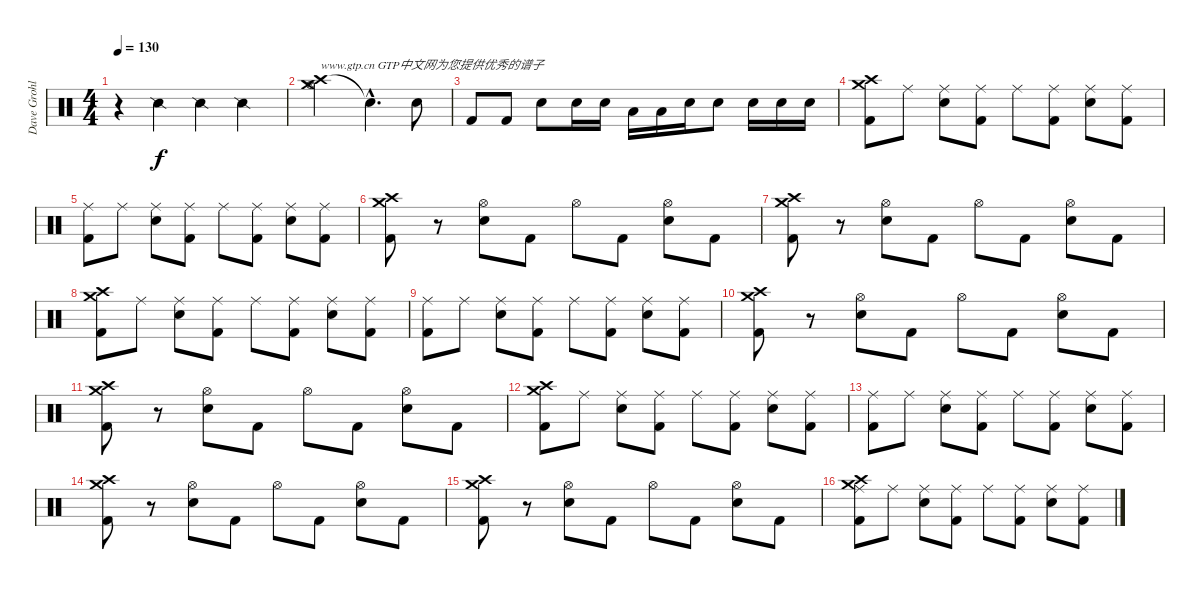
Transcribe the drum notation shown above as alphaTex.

\track ("Dave Grohl" "Dave Grohl") {instrument percussion}
\staff {score}
\articulation defaults
\ts (4 4)
\tempo 130
\clef neutral
\ks c
r.4{dy f} "Snare (side stick) 2".4 "Snare (side stick) 2".4 "Snare (side stick) 2".4 |
("Crash high (hit)" "Crash medium (hit)" "Hi-Hat (open)").2{txt "www.gtp.cn GTP中文网为您提供优秀的谱子"} "Snare (hit)"{hac t}.4{d} "Snare (hit) 2".8 |
"Kick (hit) 2".8 "Kick (hit) 2".8 "Snare (hit) 2".8 "Snare (hit) 2".16 "Snare (hit) 2".16 "Low Tom (hit)".16 "Low Tom (hit)".16 "Snare (hit) 2".16 "Snare (hit) 2".8 "Snare (hit) 2".16 "Snare (hit) 2".16 "Snare (hit) 2".16 |
("Crash high (hit)" "Crash medium (hit)" "Kick (hit) 2").8 "Ride (middle)".8 ("Ride (middle)" "Snare (hit) 2").8 ("Ride (middle)" "Kick (hit) 2").8 "Ride (middle)".8 ("Ride (middle)" "Kick (hit) 2").8 ("Ride (middle)" "Snare (hit) 2").8 ("Ride (middle)" "Kick (hit) 2").8 |
("Ride (middle)" "Kick (hit) 2").8 "Ride (middle)".8 ("Ride (middle)" "Snare (hit) 2").8 ("Ride (middle)" "Kick (hit) 2").8 "Ride (middle)".8 ("Ride (middle)" "Kick (hit) 2").8 ("Ride (middle)" "Snare (hit) 2").8 ("Ride (middle)" "Kick (hit) 2").8 |
("Crash high (hit)" "Crash medium (hit)" "Kick (hit) 2").8 r.8 ("Hi-Hat (open)" "Snare (hit) 2").8 "Kick (hit) 2".8 "Hi-Hat (open)".8 "Kick (hit) 2".8 ("Hi-Hat (open)" "Snare (hit) 2").8 "Kick (hit) 2".8 |
("Crash high (hit)" "Crash medium (hit)" "Kick (hit) 2").8 r.8 ("Hi-Hat (open)" "Snare (hit) 2").8 "Kick (hit) 2".8 "Hi-Hat (open)".8 "Kick (hit) 2".8 ("Hi-Hat (open)" "Snare (hit) 2").8 "Kick (hit) 2".8 |
("Crash high (hit)" "Crash medium (hit)" "Kick (hit) 2").8 "Ride (middle)".8 ("Ride (middle)" "Snare (hit) 2").8 ("Ride (middle)" "Kick (hit) 2").8 "Ride (middle)".8 ("Ride (middle)" "Kick (hit) 2").8 ("Ride (middle)" "Snare (hit) 2").8 ("Ride (middle)" "Kick (hit) 2").8 |
("Ride (middle)" "Kick (hit) 2").8 "Ride (middle)".8 ("Ride (middle)" "Snare (hit) 2").8 ("Ride (middle)" "Kick (hit) 2").8 "Ride (middle)".8 ("Ride (middle)" "Kick (hit) 2").8 ("Ride (middle)" "Snare (hit) 2").8 ("Ride (middle)" "Kick (hit) 2").8 |
("Crash high (hit)" "Crash medium (hit)" "Kick (hit) 2").8 r.8 ("Hi-Hat (open)" "Snare (hit) 2").8 "Kick (hit) 2".8 "Hi-Hat (open)".8 "Kick (hit) 2".8 ("Hi-Hat (open)" "Snare (hit) 2").8 "Kick (hit) 2".8 |
("Crash high (hit)" "Crash medium (hit)" "Kick (hit) 2").8 r.8 ("Hi-Hat (open)" "Snare (hit) 2").8 "Kick (hit) 2".8 "Hi-Hat (open)".8 "Kick (hit) 2".8 ("Hi-Hat (open)" "Snare (hit) 2").8 "Kick (hit) 2".8 |
("Crash high (hit)" "Crash medium (hit)" "Kick (hit) 2").8 "Ride (middle)".8 ("Ride (middle)" "Snare (hit) 2").8 ("Ride (middle)" "Kick (hit) 2").8 "Ride (middle)".8 ("Ride (middle)" "Kick (hit) 2").8 ("Ride (middle)" "Snare (hit) 2").8 ("Ride (middle)" "Kick (hit) 2").8 |
("Ride (middle)" "Kick (hit) 2").8 "Ride (middle)".8 ("Ride (middle)" "Snare (hit) 2").8 ("Ride (middle)" "Kick (hit) 2").8 "Ride (middle)".8 ("Ride (middle)" "Kick (hit) 2").8 ("Ride (middle)" "Snare (hit) 2").8 ("Ride (middle)" "Kick (hit) 2").8 |
("Crash high (hit)" "Crash medium (hit)" "Kick (hit) 2").8 r.8 ("Hi-Hat (open)" "Snare (hit) 2").8 "Kick (hit) 2".8 "Hi-Hat (open)".8 "Kick (hit) 2".8 ("Hi-Hat (open)" "Snare (hit) 2").8 "Kick (hit) 2".8 |
("Crash high (hit)" "Crash medium (hit)" "Kick (hit) 2").8 r.8 ("Hi-Hat (open)" "Snare (hit) 2").8 "Kick (hit) 2".8 "Hi-Hat (open)".8 "Kick (hit) 2".8 ("Hi-Hat (open)" "Snare (hit) 2").8 "Kick (hit) 2".8 |
("Crash medium (hit)" "Crash high (hit)" "Ride (middle)" "Kick (hit) 2").8 "Ride (middle)".8 ("Ride (middle)" "Snare (hit) 2").8 ("Ride (middle)" "Kick (hit) 2").8 "Ride (middle)".8 ("Ride (middle)" "Kick (hit) 2").8 ("Ride (middle)" "Snare (hit) 2").8 ("Ride (middle)" "Kick (hit) 2").8
